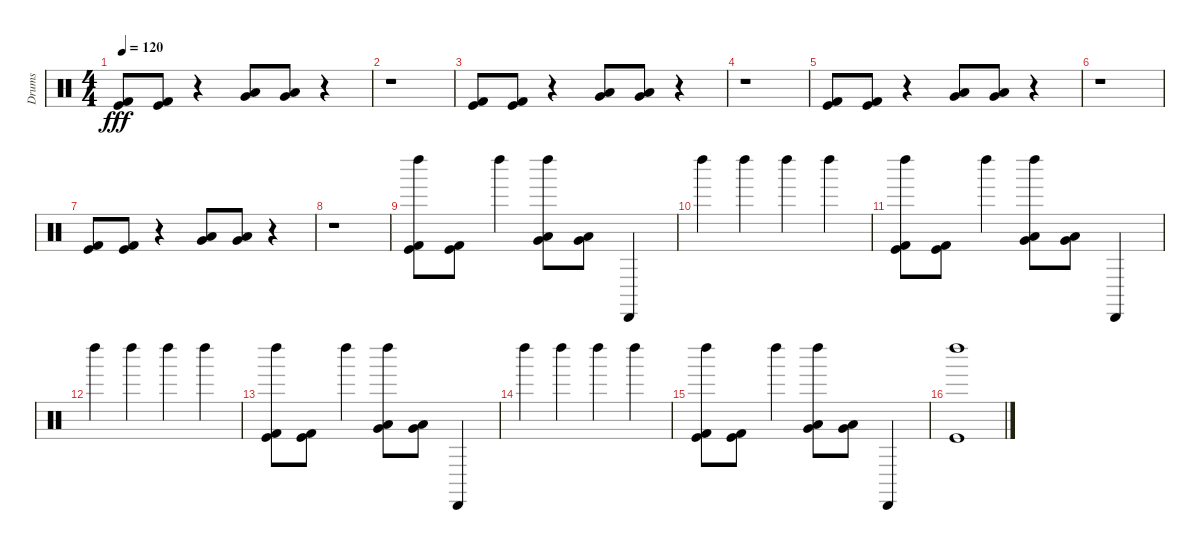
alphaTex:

\track ("Drums" "Drums") {instrument percussion}
\staff {score}
\articulation defaults
\ts (4 4)
\tempo 120
\clef neutral
\ks c
("Kick (hit) 2" "Kick (hit)").8{dy fff} ("Kick (hit) 2" "Kick (hit)").8 r.4 ("Very Low Tom (hit)" "Low Tom (hit)").8 ("Very Low Tom (hit)" "Low Tom (hit)").8 r.4 |
r.1 |
("Kick (hit) 2" "Kick (hit)").8 ("Kick (hit) 2" "Kick (hit)").8 r.4 ("Very Low Tom (hit)" "Low Tom (hit)").8 ("Very Low Tom (hit)" "Low Tom (hit)").8 r.4 |
r.1 |
("Kick (hit) 2" "Kick (hit)").8 ("Kick (hit) 2" "Kick (hit)").8 r.4 ("Very Low Tom (hit)" "Low Tom (hit)").8 ("Very Low Tom (hit)" "Low Tom (hit)").8 r.4 |
r.1 |
("Kick (hit) 2" "Kick (hit)").8 ("Kick (hit) 2" "Kick (hit)").8 r.4 ("Very Low Tom (hit)" "Low Tom (hit)").8 ("Very Low Tom (hit)" "Low Tom (hit)").8 r.4 |
r.1 |
("Left Maraca (hit)" "Kick (hit) 2" "Kick (hit)").8 ("Kick (hit) 2" "Kick (hit)").8 "Left Maraca (hit)".4 ("Left Maraca (hit)" "Very Low Tom (hit)" "Low Tom (hit)").8 ("Very Low Tom (hit)" "Low Tom (hit)").8 "Cabasa (hit)".4 |
"Left Maraca (hit)".4 "Left Maraca (hit)".4 "Left Maraca (hit)".4 "Left Maraca (hit)".4 |
("Left Maraca (hit)" "Kick (hit) 2" "Kick (hit)").8 ("Kick (hit) 2" "Kick (hit)").8 "Left Maraca (hit)".4 ("Left Maraca (hit)" "Very Low Tom (hit)" "Low Tom (hit)").8 ("Very Low Tom (hit)" "Low Tom (hit)").8 "Cabasa (hit)".4 |
"Left Maraca (hit)".4 "Left Maraca (hit)".4 "Left Maraca (hit)".4 "Left Maraca (hit)".4 |
("Left Maraca (hit)" "Kick (hit) 2" "Kick (hit)").8 ("Kick (hit) 2" "Kick (hit)").8 "Left Maraca (hit)".4 ("Left Maraca (hit)" "Very Low Tom (hit)" "Low Tom (hit)").8 ("Very Low Tom (hit)" "Low Tom (hit)").8 "Cabasa (hit)".4 |
"Left Maraca (hit)".4 "Left Maraca (hit)".4 "Left Maraca (hit)".4 "Left Maraca (hit)".4 |
("Left Maraca (hit)" "Kick (hit) 2" "Kick (hit)").8 ("Kick (hit) 2" "Kick (hit)").8 "Left Maraca (hit)".4 ("Left Maraca (hit)" "Very Low Tom (hit)" "Low Tom (hit)").8 ("Very Low Tom (hit)" "Low Tom (hit)").8 "Cabasa (hit)".4 |
("Left Maraca (hit)" "Kick (hit)").1
